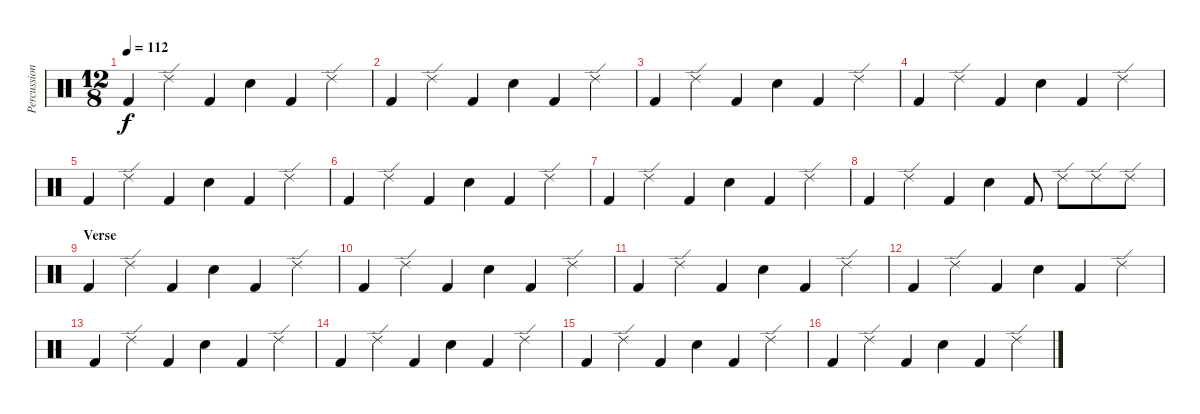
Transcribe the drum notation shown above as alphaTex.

\track ("Percussion" "Percussion") {instrument percussion}
\staff {score}
\articulation defaults
\ts (12 8)
\tempo 112
\clef neutral
\ks c "Kick (hit) 2".4{dy f} "Ride (edge) 2".4 "Kick (hit) 2".4 "Electric Snare (hit)".4 "Kick (hit) 2".4 "Ride (edge) 2".4
|
"Kick (hit) 2".4 "Ride (edge) 2".4 "Kick (hit) 2".4 "Electric Snare (hit)".4 "Kick (hit) 2".4 "Ride (edge) 2".4 |
"Kick (hit) 2".4 "Ride (edge) 2".4 "Kick (hit) 2".4 "Electric Snare (hit)".4 "Kick (hit) 2".4 "Ride (edge) 2".4 |
"Kick (hit) 2".4 "Ride (edge) 2".4 "Kick (hit) 2".4 "Electric Snare (hit)".4 "Kick (hit) 2".4 "Ride (edge) 2".4 |
"Kick (hit) 2".4 "Ride (edge) 2".4 "Kick (hit) 2".4 "Electric Snare (hit)".4 "Kick (hit) 2".4 "Ride (edge) 2".4 |
"Kick (hit) 2".4 "Ride (edge) 2".4 "Kick (hit) 2".4 "Electric Snare (hit)".4 "Kick (hit) 2".4 "Ride (edge) 2".4 |
"Kick (hit) 2".4 "Ride (edge) 2".4 "Kick (hit) 2".4 "Electric Snare (hit)".4 "Kick (hit) 2".4 "Ride (edge) 2".4 |
"Kick (hit) 2".4 "Ride (edge) 2".4 "Kick (hit) 2".4 "Electric Snare (hit)".4 "Kick (hit) 2".8 "Ride (edge) 2".8 "Ride (edge) 2".8 "Ride (edge) 2".8 |
\section ("" "Verse")
"Kick (hit) 2".4 "Ride (edge) 2".4 "Kick (hit) 2".4 "Electric Snare (hit)".4 "Kick (hit) 2".4 "Ride (edge) 2".4 |
"Kick (hit) 2".4 "Ride (edge) 2".4 "Kick (hit) 2".4 "Electric Snare (hit)".4 "Kick (hit) 2".4 "Ride (edge) 2".4 |
"Kick (hit) 2".4 "Ride (edge) 2".4 "Kick (hit) 2".4 "Electric Snare (hit)".4 "Kick (hit) 2".4 "Ride (edge) 2".4 |
"Kick (hit) 2".4 "Ride (edge) 2".4 "Kick (hit) 2".4 "Electric Snare (hit)".4 "Kick (hit) 2".4 "Ride (edge) 2".4 |
"Kick (hit) 2".4 "Ride (edge) 2".4 "Kick (hit) 2".4 "Electric Snare (hit)".4 "Kick (hit) 2".4 "Ride (edge) 2".4 |
"Kick (hit) 2".4 "Ride (edge) 2".4 "Kick (hit) 2".4 "Electric Snare (hit)".4 "Kick (hit) 2".4 "Ride (edge) 2".4 |
"Kick (hit) 2".4 "Ride (edge) 2".4 "Kick (hit) 2".4 "Electric Snare (hit)".4 "Kick (hit) 2".4 "Ride (edge) 2".4 |
"Kick (hit) 2".4 "Ride (edge) 2".4 "Kick (hit) 2".4 "Electric Snare (hit)".4 "Kick (hit) 2".4 "Ride (edge) 2".4
